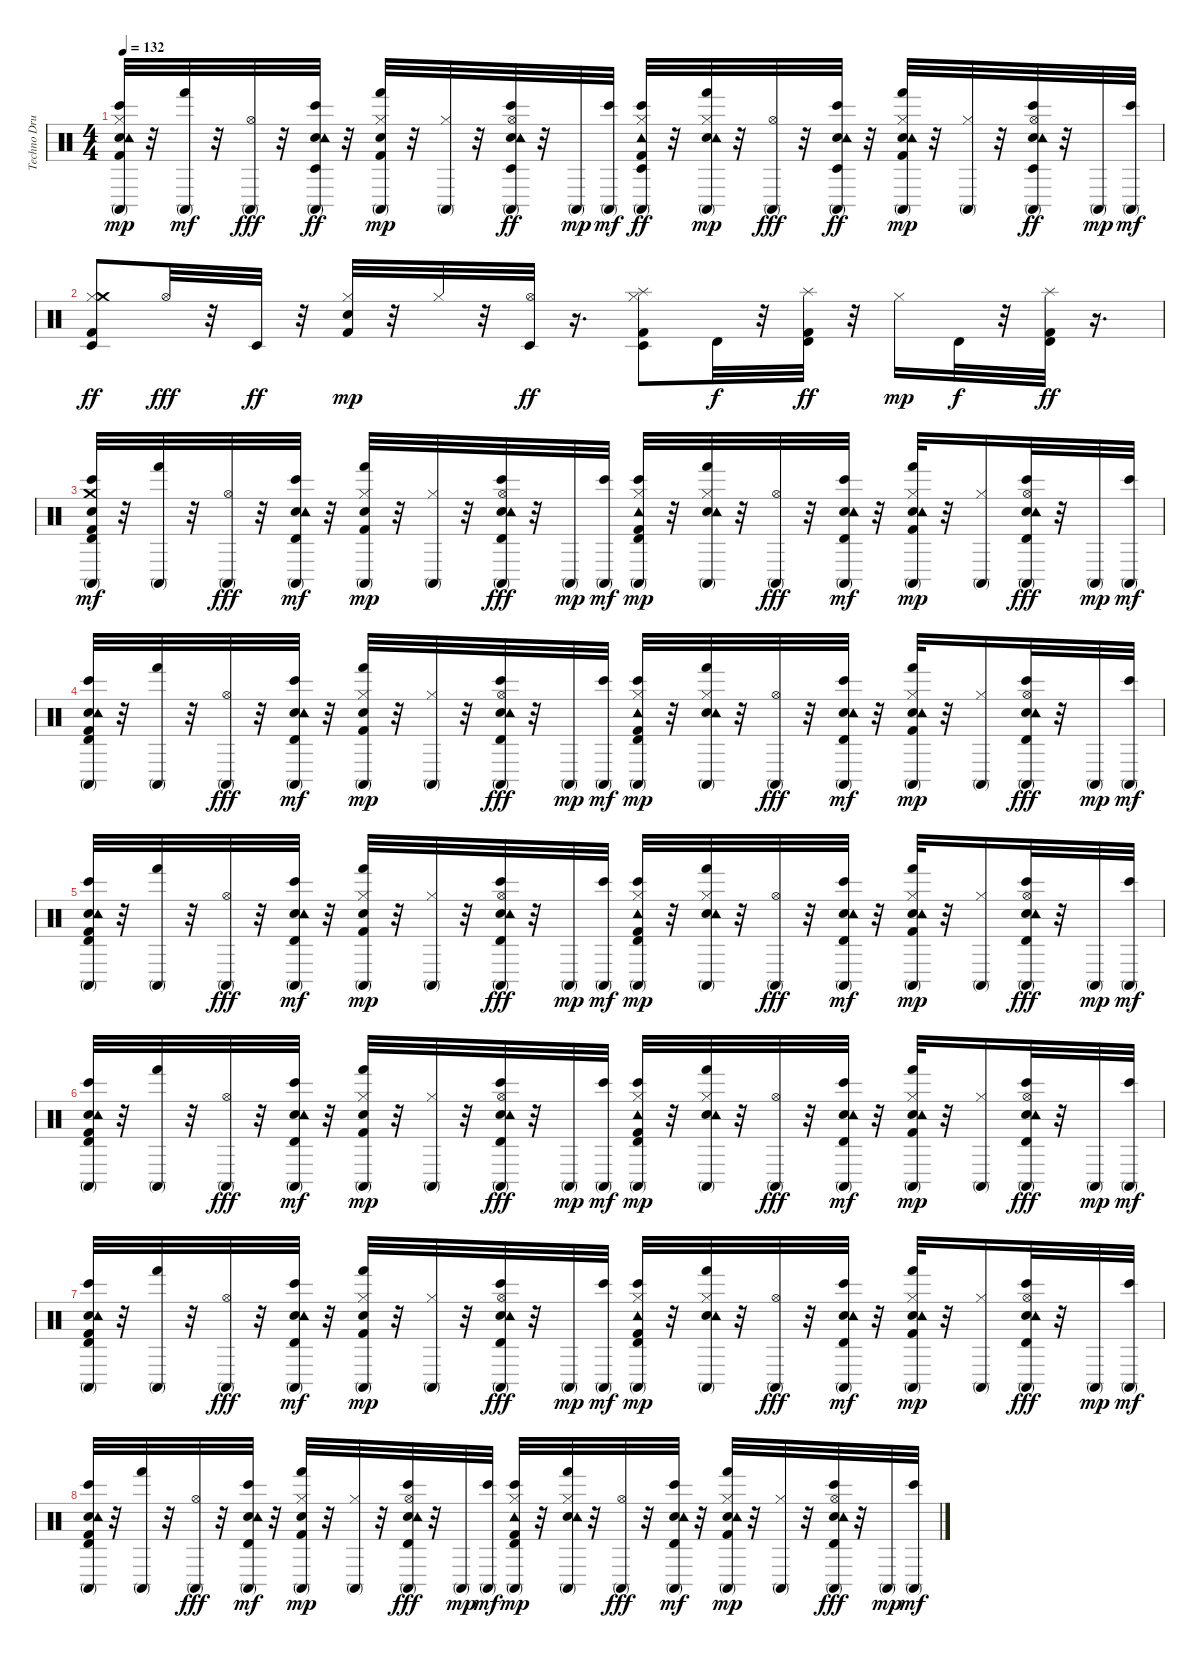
\track ("Techno Drums" "Techno Dru") {instrument percussion}
\staff {score}
\articulation defaults
\ts (4 4)
\tempo 132
\clef neutral
\ks c
("Kick (hit) 2" "Hand Clap (hit)" "Tambourine (hit)" "Conga high (mute)" "Bongo High (hit)" "Hi-Hat (closed)").32{dy mp} r.32 ("Conga high (mute)" "Hand (hit)").32{dy mf} r.32 ("Conga high (mute)" "Hi-Hat (open)").32{dy fff} r.32 ("Hand Clap (hit)" "Tambourine (hit)" "Conga high (mute)" "Bongo High (hit)" "Timbale low (hit)").32{dy ff} r.32 ("Kick (hit) 2" "Hand Clap (hit)" "Conga high (mute)" "Hand (hit)" "Hi-Hat (closed)").32{dy mp} r.32 ("Conga high (mute)" "Hi-Hat (closed)").32 r.32 ("Hand Clap (hit)" "Tambourine (hit)" "Conga high (mute)" "Bongo High (hit)" "Hi-Hat (open)" "Timbale low (hit)").32{dy ff} r.32 "Conga high (mute)".32{dy mp} ("Conga high (mute)" "Bongo High (hit)").32{dy mf} ("Kick (hit) 2" "Tambourine (hit)" "Conga high (mute)" "Bongo High (hit)" "Hi-Hat (closed)" "Timbale low (hit)").32{dy ff} r.32 ("Hand Clap (hit)" "Tambourine (hit)" "Conga high (mute)" "Hand (hit)" "Hi-Hat (closed)").32{dy mp} r.32 ("Conga high (mute)" "Hi-Hat (open)").32{dy fff} r.32 ("Hand Clap (hit)" "Tambourine (hit)" "Conga high (mute)" "Bongo High (hit)" "Timbale low (hit)").32{dy ff} r.32 ("Kick (hit) 2" "Hand Clap (hit)" "Tambourine (hit)" "Conga high (mute)" "Hand (hit)" "Hi-Hat (closed)").32{dy mp} r.32 ("Conga high (mute)" "Hi-Hat (closed)").32 r.32 ("Hand Clap (hit)" "Tambourine (hit)" "Conga high (mute)" "Bongo High (hit)" "Hi-Hat (open)" "Timbale low (hit)").32{dy ff} r.32 "Conga high (mute)".32{dy mp} ("Conga high (mute)" "Bongo High (hit)").32{dy mf} |
("Kick (hit) 2" "Hi-Hat (closed)" "Timbale low (hit)" "Crash medium (hit)").8{dy ff} "Hi-Hat (open)".32{dy fff} r.32 "Timbale low (hit)".32{dy ff} r.32 ("Kick (hit) 2" "Hand Clap (hit)" "Hi-Hat (closed)").32{dy mp} r.32 "Hi-Hat (closed)".32 r.32 ("Hi-Hat (open)" "Timbale low (hit)").32{dy ff} r.16{d} ("Hi-Hat (closed)" "Timbale low (hit)" "Kick (hit) 2" "Splash (hit)").8 "Timbale high (hit)".32{dy f} r.32 ("Timbale high (hit)" "Kick (hit) 2" "Splash (hit)").32{dy ff} r.32 "Hi-Hat (closed)".16{dy mp} "Timbale high (hit)".32{dy f} r.32 ("Timbale high (hit)" "Kick (hit) 2" "Splash (hit)").32{dy ff} r.16{d} |
("Kick (hit) 2" "Hand Clap (hit)" "Crash medium (hit)" "Conga high (mute)" "Bongo High (hit)" "Timbale high (hit)").32{dy mf} r.32 ("Conga high (mute)" "Hand (hit)").32 r.32 ("Conga high (mute)" "Hi-Hat (open)").32{dy fff} r.32 ("Hand Clap (hit)" "Tambourine (hit)" "Conga high (mute)" "Bongo High (hit)" "Timbale high (hit)").32{dy mf} r.32 ("Kick (hit) 2" "Hand Clap (hit)" "Conga high (mute)" "Hand (hit)" "Hi-Hat (closed)").32{dy mp} r.32 ("Conga high (mute)" "Hi-Hat (closed)").32 r.32 ("Hand Clap (hit)" "Tambourine (hit)" "Conga high (mute)" "Bongo High (hit)" "Timbale high (hit)" "Hi-Hat (open)").32{dy fff} r.32 "Conga high (mute)".32{dy mp} ("Conga high (mute)" "Bongo High (hit)").32{dy mf} ("Kick (hit) 2" "Tambourine (hit)" "Conga high (mute)" "Bongo High (hit)" "Timbale high (hit)" "Hi-Hat (closed)").32{dy mp} r.32 ("Hand Clap (hit)" "Tambourine (hit)" "Conga high (mute)" "Hand (hit)" "Hi-Hat (closed)").32 r.32 ("Conga high (mute)" "Hi-Hat (open)").32{dy fff} r.32 ("Hand Clap (hit)" "Tambourine (hit)" "Conga high (mute)" "Bongo High (hit)" "Timbale high (hit)").32{dy mf} r.32 ("Kick (hit) 2" "Hand Clap (hit)" "Tambourine (hit)" "Conga high (mute)" "Hand (hit)" "Hi-Hat (closed)").32{dy mp} r.32 ("Conga high (mute)" "Hi-Hat (closed)").16 ("Hand Clap (hit)" "Tambourine (hit)" "Conga high (mute)" "Bongo High (hit)" "Timbale high (hit)" "Hi-Hat (open)").32{dy fff} r.32 "Conga high (mute)".32{dy mp} ("Conga high (mute)" "Bongo High (hit)").32{dy mf} |
("Kick (hit) 2" "Hand Clap (hit)" "Tambourine (hit)" "Conga high (mute)" "Bongo High (hit)" "Timbale high (hit)").32 r.32 ("Conga high (mute)" "Hand (hit)").32 r.32 ("Conga high (mute)" "Hi-Hat (open)").32{dy fff} r.32 ("Hand Clap (hit)" "Tambourine (hit)" "Conga high (mute)" "Bongo High (hit)" "Timbale high (hit)").32{dy mf} r.32 ("Kick (hit) 2" "Hand Clap (hit)" "Conga high (mute)" "Hand (hit)" "Hi-Hat (closed)").32{dy mp} r.32 ("Conga high (mute)" "Hi-Hat (closed)").32 r.32 ("Hand Clap (hit)" "Tambourine (hit)" "Conga high (mute)" "Bongo High (hit)" "Timbale high (hit)" "Hi-Hat (open)").32{dy fff} r.32 "Conga high (mute)".32{dy mp} ("Conga high (mute)" "Bongo High (hit)").32{dy mf} ("Kick (hit) 2" "Tambourine (hit)" "Conga high (mute)" "Bongo High (hit)" "Timbale high (hit)" "Hi-Hat (closed)").32{dy mp} r.32 ("Hand Clap (hit)" "Tambourine (hit)" "Conga high (mute)" "Hand (hit)" "Hi-Hat (closed)").32 r.32 ("Conga high (mute)" "Hi-Hat (open)").32{dy fff} r.32 ("Hand Clap (hit)" "Tambourine (hit)" "Conga high (mute)" "Bongo High (hit)" "Timbale high (hit)").32{dy mf} r.32 ("Kick (hit) 2" "Hand Clap (hit)" "Tambourine (hit)" "Conga high (mute)" "Hand (hit)" "Hi-Hat (closed)").32{dy mp} r.32 ("Conga high (mute)" "Hi-Hat (closed)").16 ("Hand Clap (hit)" "Tambourine (hit)" "Conga high (mute)" "Bongo High (hit)" "Timbale high (hit)" "Hi-Hat (open)").32{dy fff} r.32 "Conga high (mute)".32{dy mp} ("Conga high (mute)" "Bongo High (hit)").32{dy mf} |
("Kick (hit) 2" "Hand Clap (hit)" "Tambourine (hit)" "Conga high (mute)" "Bongo High (hit)" "Timbale high (hit)").32 r.32 ("Conga high (mute)" "Hand (hit)").32 r.32 ("Conga high (mute)" "Hi-Hat (open)").32{dy fff} r.32 ("Hand Clap (hit)" "Tambourine (hit)" "Conga high (mute)" "Bongo High (hit)" "Timbale high (hit)").32{dy mf} r.32 ("Kick (hit) 2" "Hand Clap (hit)" "Conga high (mute)" "Hand (hit)" "Hi-Hat (closed)").32{dy mp} r.32 ("Conga high (mute)" "Hi-Hat (closed)").32 r.32 ("Hand Clap (hit)" "Tambourine (hit)" "Conga high (mute)" "Bongo High (hit)" "Timbale high (hit)" "Hi-Hat (open)").32{dy fff} r.32 "Conga high (mute)".32{dy mp} ("Conga high (mute)" "Bongo High (hit)").32{dy mf} ("Kick (hit) 2" "Tambourine (hit)" "Conga high (mute)" "Bongo High (hit)" "Timbale high (hit)" "Hi-Hat (closed)").32{dy mp} r.32 ("Hand Clap (hit)" "Tambourine (hit)" "Conga high (mute)" "Hand (hit)" "Hi-Hat (closed)").32 r.32 ("Conga high (mute)" "Hi-Hat (open)").32{dy fff} r.32 ("Hand Clap (hit)" "Tambourine (hit)" "Conga high (mute)" "Bongo High (hit)" "Timbale high (hit)").32{dy mf} r.32 ("Kick (hit) 2" "Hand Clap (hit)" "Tambourine (hit)" "Conga high (mute)" "Hand (hit)" "Hi-Hat (closed)").32{dy mp} r.32 ("Conga high (mute)" "Hi-Hat (closed)").16 ("Hand Clap (hit)" "Tambourine (hit)" "Conga high (mute)" "Bongo High (hit)" "Timbale high (hit)" "Hi-Hat (open)").32{dy fff} r.32 "Conga high (mute)".32{dy mp} ("Conga high (mute)" "Bongo High (hit)").32{dy mf} |
("Kick (hit) 2" "Hand Clap (hit)" "Tambourine (hit)" "Conga high (mute)" "Bongo High (hit)" "Timbale high (hit)").32 r.32 ("Conga high (mute)" "Hand (hit)").32 r.32 ("Conga high (mute)" "Hi-Hat (open)").32{dy fff} r.32 ("Hand Clap (hit)" "Tambourine (hit)" "Conga high (mute)" "Bongo High (hit)" "Timbale high (hit)").32{dy mf} r.32 ("Kick (hit) 2" "Hand Clap (hit)" "Conga high (mute)" "Hand (hit)" "Hi-Hat (closed)").32{dy mp} r.32 ("Conga high (mute)" "Hi-Hat (closed)").32 r.32 ("Hand Clap (hit)" "Tambourine (hit)" "Conga high (mute)" "Bongo High (hit)" "Timbale high (hit)" "Hi-Hat (open)").32{dy fff} r.32 "Conga high (mute)".32{dy mp} ("Conga high (mute)" "Bongo High (hit)").32{dy mf} ("Kick (hit) 2" "Tambourine (hit)" "Conga high (mute)" "Bongo High (hit)" "Timbale high (hit)" "Hi-Hat (closed)").32{dy mp} r.32 ("Hand Clap (hit)" "Tambourine (hit)" "Conga high (mute)" "Hand (hit)" "Hi-Hat (closed)").32 r.32 ("Conga high (mute)" "Hi-Hat (open)").32{dy fff} r.32 ("Hand Clap (hit)" "Tambourine (hit)" "Conga high (mute)" "Bongo High (hit)" "Timbale high (hit)").32{dy mf} r.32 ("Kick (hit) 2" "Hand Clap (hit)" "Tambourine (hit)" "Conga high (mute)" "Hand (hit)" "Hi-Hat (closed)").32{dy mp} r.32 ("Conga high (mute)" "Hi-Hat (closed)").16 ("Hand Clap (hit)" "Tambourine (hit)" "Conga high (mute)" "Bongo High (hit)" "Timbale high (hit)" "Hi-Hat (open)").32{dy fff} r.32 "Conga high (mute)".32{dy mp} ("Conga high (mute)" "Bongo High (hit)").32{dy mf} |
("Kick (hit) 2" "Hand Clap (hit)" "Tambourine (hit)" "Conga high (mute)" "Bongo High (hit)" "Timbale high (hit)").32 r.32 ("Conga high (mute)" "Hand (hit)").32 r.32 ("Conga high (mute)" "Hi-Hat (open)").32{dy fff} r.32 ("Hand Clap (hit)" "Tambourine (hit)" "Conga high (mute)" "Bongo High (hit)" "Timbale high (hit)").32{dy mf} r.32 ("Kick (hit) 2" "Hand Clap (hit)" "Conga high (mute)" "Hand (hit)" "Hi-Hat (closed)").32{dy mp} r.32 ("Conga high (mute)" "Hi-Hat (closed)").32 r.32 ("Hand Clap (hit)" "Tambourine (hit)" "Conga high (mute)" "Bongo High (hit)" "Timbale high (hit)" "Hi-Hat (open)").32{dy fff} r.32 "Conga high (mute)".32{dy mp} ("Conga high (mute)" "Bongo High (hit)").32{dy mf} ("Kick (hit) 2" "Tambourine (hit)" "Conga high (mute)" "Bongo High (hit)" "Timbale high (hit)" "Hi-Hat (closed)").32{dy mp} r.32 ("Hand Clap (hit)" "Tambourine (hit)" "Conga high (mute)" "Hand (hit)" "Hi-Hat (closed)").32 r.32 ("Conga high (mute)" "Hi-Hat (open)").32{dy fff} r.32 ("Hand Clap (hit)" "Tambourine (hit)" "Conga high (mute)" "Bongo High (hit)" "Timbale high (hit)").32{dy mf} r.32 ("Kick (hit) 2" "Hand Clap (hit)" "Tambourine (hit)" "Conga high (mute)" "Hand (hit)" "Hi-Hat (closed)").32{dy mp} r.32 ("Conga high (mute)" "Hi-Hat (closed)").16 ("Hand Clap (hit)" "Tambourine (hit)" "Conga high (mute)" "Bongo High (hit)" "Timbale high (hit)" "Hi-Hat (open)").32{dy fff} r.32 "Conga high (mute)".32{dy mp} ("Conga high (mute)" "Bongo High (hit)").32{dy mf} |
("Kick (hit) 2" "Hand Clap (hit)" "Tambourine (hit)" "Conga high (mute)" "Bongo High (hit)" "Timbale high (hit)").32 r.32 ("Conga high (mute)" "Hand (hit)").32 r.32 ("Conga high (mute)" "Hi-Hat (open)").32{dy fff} r.32 ("Hand Clap (hit)" "Tambourine (hit)" "Conga high (mute)" "Bongo High (hit)" "Timbale high (hit)").32{dy mf} r.32 ("Kick (hit) 2" "Hand Clap (hit)" "Conga high (mute)" "Hand (hit)" "Hi-Hat (closed)").32{dy mp} r.32 ("Conga high (mute)" "Hi-Hat (closed)").32 r.32 ("Hand Clap (hit)" "Tambourine (hit)" "Conga high (mute)" "Bongo High (hit)" "Timbale high (hit)" "Hi-Hat (open)").32{dy fff} r.32 "Conga high (mute)".32{dy mp} ("Conga high (mute)" "Bongo High (hit)").32{dy mf} ("Kick (hit) 2" "Tambourine (hit)" "Conga high (mute)" "Bongo High (hit)" "Timbale high (hit)" "Hi-Hat (closed)").32{dy mp} r.32 ("Hand Clap (hit)" "Tambourine (hit)" "Conga high (mute)" "Hand (hit)" "Hi-Hat (closed)").32 r.32 ("Conga high (mute)" "Hi-Hat (open)").32{dy fff} r.32 ("Hand Clap (hit)" "Tambourine (hit)" "Conga high (mute)" "Bongo High (hit)" "Timbale high (hit)").32{dy mf} r.32 ("Kick (hit) 2" "Hand Clap (hit)" "Tambourine (hit)" "Conga high (mute)" "Hand (hit)" "Hi-Hat (closed)").32{dy mp} r.32 ("Conga high (mute)" "Hi-Hat (closed)").32 r.32 ("Hand Clap (hit)" "Tambourine (hit)" "Conga high (mute)" "Bongo High (hit)" "Timbale high (hit)" "Hi-Hat (open)").32{dy fff} r.32 "Conga high (mute)".32{dy mp} ("Conga high (mute)" "Bongo High (hit)").32{dy mf}
